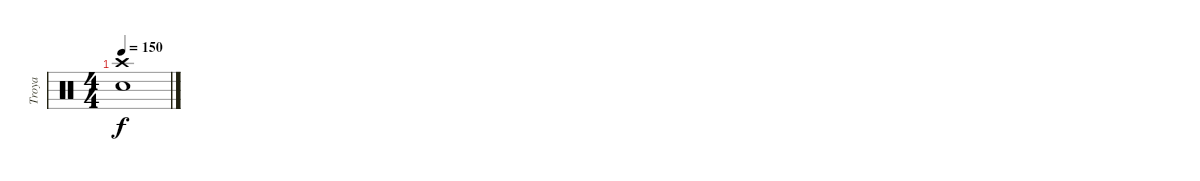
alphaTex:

\track ("Troya" "Troya") {instrument percussion}
\staff {score}
\articulation defaults
\ts (4 4)
\tempo 150
\clef neutral
\ks c
("Snare (hit) 2" "Crash high (hit)").1{dy f}
